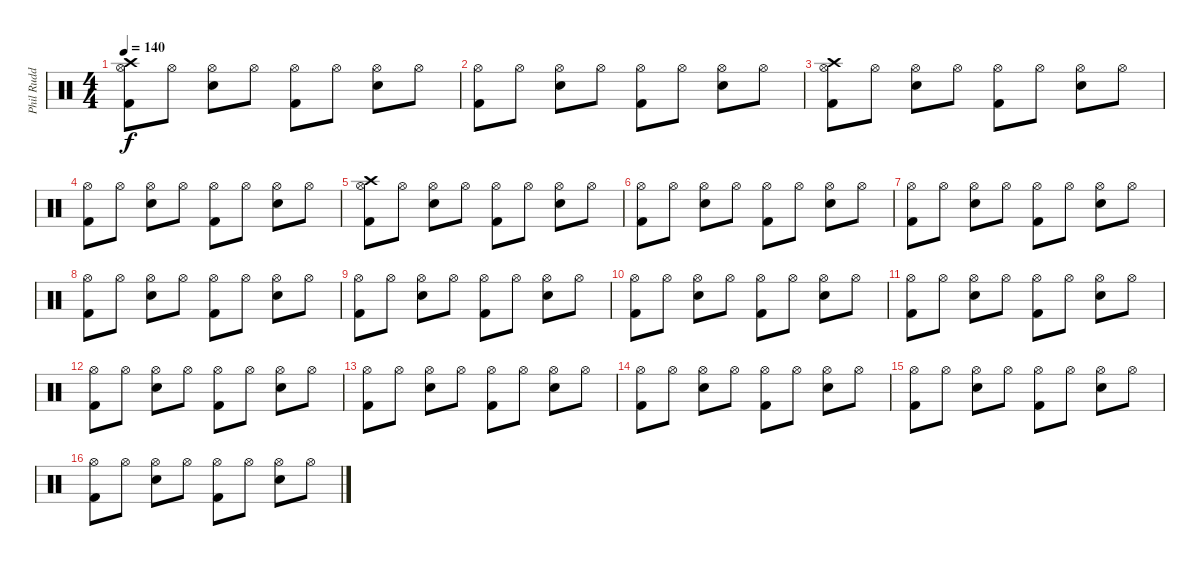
\track ("Phil Rudd" "Phil Rudd") {instrument percussion}
\staff {score}
\articulation defaults
\ts (4 4)
\tempo 140
\clef neutral
\ks c
("Crash high (hit)" "Hi-Hat (open)" "Kick (hit) 2").8{dy f} "Hi-Hat (open)".8 ("Hi-Hat (open)" "Snare (hit) 2").8 "Hi-Hat (open)".8 ("Hi-Hat (open)" "Kick (hit) 2").8 "Hi-Hat (open)".8 ("Hi-Hat (open)" "Snare (hit) 2").8 "Hi-Hat (open)".8 |
("Hi-Hat (open)" "Kick (hit) 2").8 "Hi-Hat (open)".8 ("Hi-Hat (open)" "Snare (hit) 2").8 "Hi-Hat (open)".8 ("Hi-Hat (open)" "Kick (hit) 2").8 "Hi-Hat (open)".8 ("Hi-Hat (open)" "Snare (hit) 2").8 "Hi-Hat (open)".8 |
("Crash high (hit)" "Hi-Hat (open)" "Kick (hit) 2").8 "Hi-Hat (open)".8 ("Hi-Hat (open)" "Snare (hit) 2").8 "Hi-Hat (open)".8 ("Hi-Hat (open)" "Kick (hit) 2").8 "Hi-Hat (open)".8 ("Hi-Hat (open)" "Snare (hit) 2").8 "Hi-Hat (open)".8 |
("Hi-Hat (open)" "Kick (hit) 2").8 "Hi-Hat (open)".8 ("Hi-Hat (open)" "Snare (hit) 2").8 "Hi-Hat (open)".8 ("Hi-Hat (open)" "Kick (hit) 2").8 "Hi-Hat (open)".8 ("Hi-Hat (open)" "Snare (hit) 2").8 "Hi-Hat (open)".8 |
("Crash high (hit)" "Hi-Hat (open)" "Kick (hit) 2").8 "Hi-Hat (open)".8 ("Hi-Hat (open)" "Snare (hit) 2").8 "Hi-Hat (open)".8 ("Hi-Hat (open)" "Kick (hit) 2").8 "Hi-Hat (open)".8 ("Hi-Hat (open)" "Snare (hit) 2").8 "Hi-Hat (open)".8 |
("Hi-Hat (open)" "Kick (hit) 2").8 "Hi-Hat (open)".8 ("Hi-Hat (open)" "Snare (hit) 2").8 "Hi-Hat (open)".8 ("Hi-Hat (open)" "Kick (hit) 2").8 "Hi-Hat (open)".8 ("Hi-Hat (open)" "Snare (hit) 2").8 "Hi-Hat (open)".8 |
("Hi-Hat (open)" "Kick (hit) 2").8 "Hi-Hat (open)".8 ("Hi-Hat (open)" "Snare (hit) 2").8 "Hi-Hat (open)".8 ("Hi-Hat (open)" "Kick (hit) 2").8 "Hi-Hat (open)".8 ("Hi-Hat (open)" "Snare (hit) 2").8 "Hi-Hat (open)".8 |
("Hi-Hat (open)" "Kick (hit) 2").8 "Hi-Hat (open)".8 ("Hi-Hat (open)" "Snare (hit) 2").8 "Hi-Hat (open)".8 ("Hi-Hat (open)" "Kick (hit) 2").8 "Hi-Hat (open)".8 ("Hi-Hat (open)" "Snare (hit) 2").8 "Hi-Hat (open)".8 |
("Hi-Hat (open)" "Kick (hit) 2").8 "Hi-Hat (open)".8 ("Hi-Hat (open)" "Snare (hit) 2").8 "Hi-Hat (open)".8 ("Hi-Hat (open)" "Kick (hit) 2").8 "Hi-Hat (open)".8 ("Hi-Hat (open)" "Snare (hit) 2").8 "Hi-Hat (open)".8 |
("Hi-Hat (open)" "Kick (hit) 2").8 "Hi-Hat (open)".8 ("Hi-Hat (open)" "Snare (hit) 2").8 "Hi-Hat (open)".8 ("Hi-Hat (open)" "Kick (hit) 2").8 "Hi-Hat (open)".8 ("Hi-Hat (open)" "Snare (hit) 2").8 "Hi-Hat (open)".8 |
("Hi-Hat (open)" "Kick (hit) 2").8 "Hi-Hat (open)".8 ("Hi-Hat (open)" "Snare (hit) 2").8 "Hi-Hat (open)".8 ("Hi-Hat (open)" "Kick (hit) 2").8 "Hi-Hat (open)".8 ("Hi-Hat (open)" "Snare (hit) 2").8 "Hi-Hat (open)".8 |
("Hi-Hat (open)" "Kick (hit) 2").8 "Hi-Hat (open)".8 ("Hi-Hat (open)" "Snare (hit) 2").8 "Hi-Hat (open)".8 ("Hi-Hat (open)" "Kick (hit) 2").8 "Hi-Hat (open)".8 ("Hi-Hat (open)" "Snare (hit) 2").8 "Hi-Hat (open)".8 |
("Hi-Hat (open)" "Kick (hit) 2").8 "Hi-Hat (open)".8 ("Hi-Hat (open)" "Snare (hit) 2").8 "Hi-Hat (open)".8 ("Hi-Hat (open)" "Kick (hit) 2").8 "Hi-Hat (open)".8 ("Hi-Hat (open)" "Snare (hit) 2").8 "Hi-Hat (open)".8 |
("Hi-Hat (open)" "Kick (hit) 2").8 "Hi-Hat (open)".8 ("Hi-Hat (open)" "Snare (hit) 2").8 "Hi-Hat (open)".8 ("Hi-Hat (open)" "Kick (hit) 2").8 "Hi-Hat (open)".8 ("Hi-Hat (open)" "Snare (hit) 2").8 "Hi-Hat (open)".8 |
("Hi-Hat (open)" "Kick (hit) 2").8 "Hi-Hat (open)".8 ("Hi-Hat (open)" "Snare (hit) 2").8 "Hi-Hat (open)".8 ("Hi-Hat (open)" "Kick (hit) 2").8 "Hi-Hat (open)".8 ("Hi-Hat (open)" "Snare (hit) 2").8 "Hi-Hat (open)".8 |
("Hi-Hat (open)" "Kick (hit) 2").8 "Hi-Hat (open)".8 ("Hi-Hat (open)" "Snare (hit) 2").8 "Hi-Hat (open)".8 ("Hi-Hat (open)" "Kick (hit) 2").8 "Hi-Hat (open)".8 ("Hi-Hat (open)" "Snare (hit) 2").8 "Hi-Hat (open)".8
